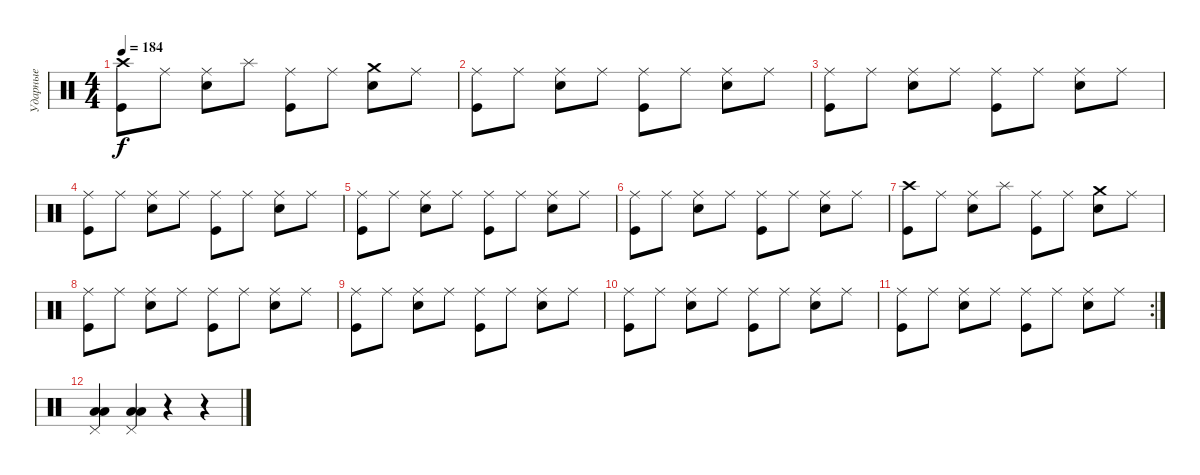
\track ("Ударные" "Ударные") {instrument percussion}
\staff {score}
\articulation defaults
\ts (4 4)
\tempo 184
\clef neutral
\ks c
("Crash high (hit)" "Kick (hit)").8{dy f} "Ride (middle)".8 ("Ride (middle)" "Electric Snare (hit)").8 "Splash (hit)".8 ("Ride (middle)" "Kick (hit)").8 "Ride (middle)".8 ("Crash medium (hit)" "Electric Snare (hit)").8 "Ride (middle)".8 |
("Ride (middle)" "Kick (hit)").8 "Ride (middle)".8 ("Ride (middle)" "Electric Snare (hit)").8 "Ride (middle)".8 ("Ride (middle)" "Kick (hit)").8 "Ride (middle)".8 ("Ride (middle)" "Electric Snare (hit)").8 "Ride (middle)".8 |
("Ride (middle)" "Kick (hit)").8 "Ride (middle)".8 ("Ride (middle)" "Electric Snare (hit)").8 "Ride (middle)".8 ("Ride (middle)" "Kick (hit)").8 "Ride (middle)".8 ("Ride (middle)" "Electric Snare (hit)").8 "Ride (middle)".8 |
("Ride (middle)" "Kick (hit)").8 "Ride (middle)".8 ("Ride (middle)" "Electric Snare (hit)").8 "Ride (middle)".8 ("Ride (middle)" "Kick (hit)").8 "Ride (middle)".8 ("Ride (middle)" "Electric Snare (hit)").8 "Ride (middle)".8 |
("Ride (middle)" "Kick (hit)").8 "Ride (middle)".8 ("Ride (middle)" "Electric Snare (hit)").8 "Ride (middle)".8 ("Ride (middle)" "Kick (hit)").8 "Ride (middle)".8 ("Ride (middle)" "Electric Snare (hit)").8 "Ride (middle)".8 |
("Ride (middle)" "Kick (hit)").8 "Ride (middle)".8 ("Ride (middle)" "Electric Snare (hit)").8 "Ride (middle)".8 ("Ride (middle)" "Kick (hit)").8 "Ride (middle)".8 ("Ride (middle)" "Electric Snare (hit)").8 "Ride (middle)".8 |
("Crash high (hit)" "Kick (hit)").8 "Ride (middle)".8 ("Ride (middle)" "Electric Snare (hit)").8 "Splash (hit)".8 ("Ride (middle)" "Kick (hit)").8 "Ride (middle)".8 ("Crash medium (hit)" "Electric Snare (hit)").8 "Ride (middle)".8 |
("Ride (middle)" "Kick (hit)").8 "Ride (middle)".8 ("Ride (middle)" "Electric Snare (hit)").8 "Ride (middle)".8 ("Ride (middle)" "Kick (hit)").8 "Ride (middle)".8 ("Ride (middle)" "Electric Snare (hit)").8 "Ride (middle)".8 |
("Ride (middle)" "Kick (hit)").8 "Ride (middle)".8 ("Ride (middle)" "Electric Snare (hit)").8 "Ride (middle)".8 ("Ride (middle)" "Kick (hit)").8 "Ride (middle)".8 ("Ride (middle)" "Electric Snare (hit)").8 "Ride (middle)".8 |
("Ride (middle)" "Kick (hit)").8 "Ride (middle)".8 ("Ride (middle)" "Electric Snare (hit)").8 "Ride (middle)".8 ("Ride (middle)" "Kick (hit)").8 "Ride (middle)".8 ("Ride (middle)" "Electric Snare (hit)").8 "Ride (middle)".8 |
\rc 2
("Ride (middle)" "Kick (hit)").8 "Ride (middle)".8 ("Ride (middle)" "Electric Snare (hit)").8 "Ride (middle)".8 ("Ride (middle)" "Kick (hit)").8 "Ride (middle)".8 ("Ride (middle)" "Electric Snare (hit)").8 "Ride (middle)".8 |
("Pedal Hi-Hat (hit)" "Low Tom (hit)" "Low Tom (hit)").4 ("Pedal Hi-Hat (hit)" "Low Tom (hit)" "Low Tom (hit)").4 r.4 r.4
